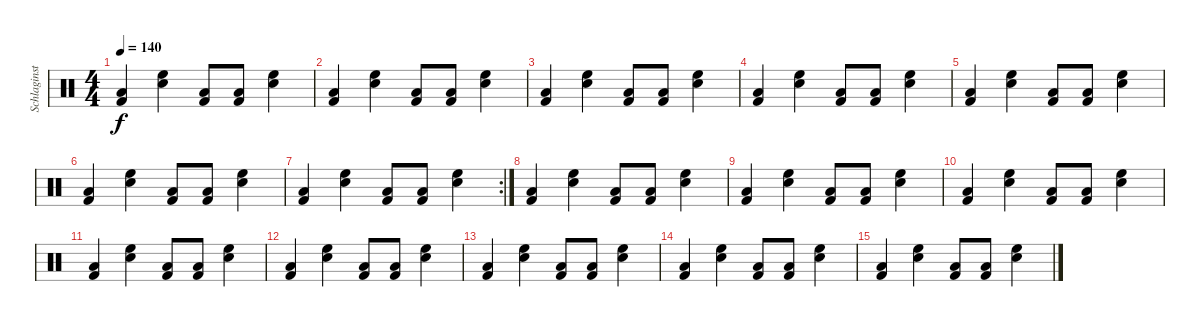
\track ("Schlaginstrumente - Auswahl" "Schlaginst") {instrument percussion}
\staff {score}
\articulation defaults
\ts (4 4)
\tempo 140
\clef neutral
\ks c
("Low Tom (hit)" "Kick (hit) 2").4{dy f} ("Snare (hit) 2" "High Floor Tom (hit)").4 ("Low Tom (hit)" "Kick (hit) 2").8 ("Low Tom (hit)" "Kick (hit) 2").8 ("Snare (hit) 2" "High Floor Tom (hit)").4 |
("Low Tom (hit)" "Kick (hit) 2").4 ("Snare (hit) 2" "High Floor Tom (hit)").4 ("Low Tom (hit)" "Kick (hit) 2").8 ("Low Tom (hit)" "Kick (hit) 2").8 ("Snare (hit) 2" "High Floor Tom (hit)").4 |
("Low Tom (hit)" "Kick (hit) 2").4 ("Snare (hit) 2" "High Floor Tom (hit)").4 ("Low Tom (hit)" "Kick (hit) 2").8 ("Low Tom (hit)" "Kick (hit) 2").8 ("Snare (hit) 2" "High Floor Tom (hit)").4 |
("Low Tom (hit)" "Kick (hit) 2").4 ("Snare (hit) 2" "High Floor Tom (hit)").4 ("Low Tom (hit)" "Kick (hit) 2").8 ("Low Tom (hit)" "Kick (hit) 2").8 ("Snare (hit) 2" "High Floor Tom (hit)").4 |
("Low Tom (hit)" "Kick (hit) 2").4 ("Snare (hit) 2" "High Floor Tom (hit)").4 ("Low Tom (hit)" "Kick (hit) 2").8 ("Low Tom (hit)" "Kick (hit) 2").8 ("Snare (hit) 2" "High Floor Tom (hit)").4 |
("Low Tom (hit)" "Kick (hit) 2").4 ("Snare (hit) 2" "High Floor Tom (hit)").4 ("Low Tom (hit)" "Kick (hit) 2").8 ("Low Tom (hit)" "Kick (hit) 2").8 ("Snare (hit) 2" "High Floor Tom (hit)").4 |
\rc 2
("Low Tom (hit)" "Kick (hit) 2").4 ("Snare (hit) 2" "High Floor Tom (hit)").4 ("Low Tom (hit)" "Kick (hit) 2").8 ("Low Tom (hit)" "Kick (hit) 2").8 ("Snare (hit) 2" "High Floor Tom (hit)").4 |
("Low Tom (hit)" "Kick (hit) 2").4 ("Snare (hit) 2" "High Floor Tom (hit)").4 ("Low Tom (hit)" "Kick (hit) 2").8 ("Low Tom (hit)" "Kick (hit) 2").8 ("Snare (hit) 2" "High Floor Tom (hit)").4 |
("Low Tom (hit)" "Kick (hit) 2").4 ("Snare (hit) 2" "High Floor Tom (hit)").4 ("Low Tom (hit)" "Kick (hit) 2").8 ("Low Tom (hit)" "Kick (hit) 2").8 ("Snare (hit) 2" "High Floor Tom (hit)").4 |
("Low Tom (hit)" "Kick (hit) 2").4 ("Snare (hit) 2" "High Floor Tom (hit)").4 ("Low Tom (hit)" "Kick (hit) 2").8 ("Low Tom (hit)" "Kick (hit) 2").8 ("Snare (hit) 2" "High Floor Tom (hit)").4 |
("Low Tom (hit)" "Kick (hit) 2").4 ("Snare (hit) 2" "High Floor Tom (hit)").4 ("Low Tom (hit)" "Kick (hit) 2").8 ("Low Tom (hit)" "Kick (hit) 2").8 ("Snare (hit) 2" "High Floor Tom (hit)").4 |
("Low Tom (hit)" "Kick (hit) 2").4 ("Snare (hit) 2" "High Floor Tom (hit)").4 ("Low Tom (hit)" "Kick (hit) 2").8 ("Low Tom (hit)" "Kick (hit) 2").8 ("Snare (hit) 2" "High Floor Tom (hit)").4 |
("Low Tom (hit)" "Kick (hit) 2").4 ("Snare (hit) 2" "High Floor Tom (hit)").4 ("Low Tom (hit)" "Kick (hit) 2").8 ("Low Tom (hit)" "Kick (hit) 2").8 ("Snare (hit) 2" "High Floor Tom (hit)").4 |
("Low Tom (hit)" "Kick (hit) 2").4 ("Snare (hit) 2" "High Floor Tom (hit)").4 ("Low Tom (hit)" "Kick (hit) 2").8 ("Low Tom (hit)" "Kick (hit) 2").8 ("Snare (hit) 2" "High Floor Tom (hit)").4 |
("Low Tom (hit)" "Kick (hit) 2").4 ("Snare (hit) 2" "High Floor Tom (hit)").4 ("Low Tom (hit)" "Kick (hit) 2").8 ("Low Tom (hit)" "Kick (hit) 2").8 ("Snare (hit) 2" "High Floor Tom (hit)").4
